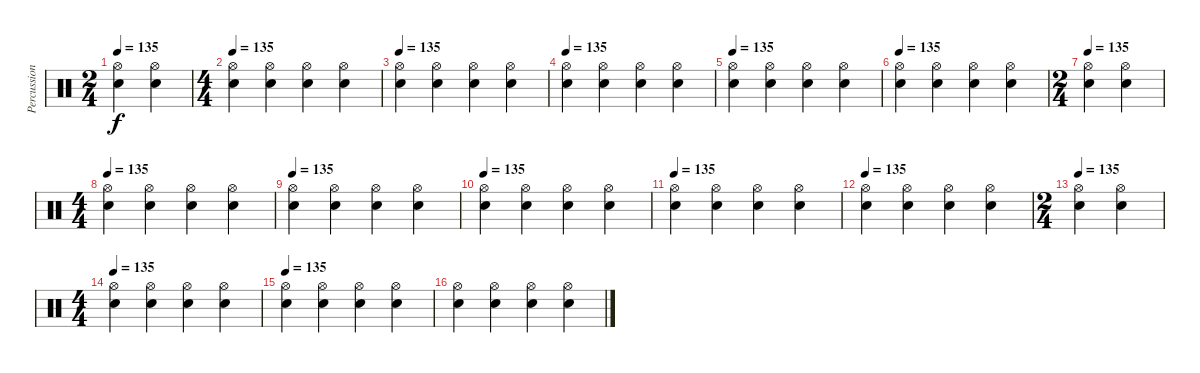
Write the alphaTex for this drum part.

\track ("Percussions" "Percussion") {instrument percussion}
\staff {score}
\articulation defaults
\ts (2 4)
\tempo 135
\clef neutral
\ks c
("Hi-Hat (open)" "Electric Snare (hit)").4{dy f} ("Hi-Hat (open)" "Electric Snare (hit)").4 |
\ts (4 4)
\tempo 135
("Hi-Hat (open)" "Electric Snare (hit)").4 ("Hi-Hat (open)" "Electric Snare (hit)").4 ("Hi-Hat (open)" "Electric Snare (hit)").4 ("Hi-Hat (open)" "Electric Snare (hit)").4 |
\tempo 135
("Hi-Hat (open)" "Electric Snare (hit)").4 ("Hi-Hat (open)" "Electric Snare (hit)").4 ("Hi-Hat (open)" "Electric Snare (hit)").4 ("Hi-Hat (open)" "Electric Snare (hit)").4 |
\tempo 135
("Hi-Hat (open)" "Electric Snare (hit)").4 ("Hi-Hat (open)" "Electric Snare (hit)").4 ("Hi-Hat (open)" "Electric Snare (hit)").4 ("Hi-Hat (open)" "Electric Snare (hit)").4 |
\tempo 135
("Hi-Hat (open)" "Electric Snare (hit)").4 ("Hi-Hat (open)" "Electric Snare (hit)").4 ("Hi-Hat (open)" "Electric Snare (hit)").4 ("Hi-Hat (open)" "Electric Snare (hit)").4 |
\tempo 135
("Hi-Hat (open)" "Electric Snare (hit)").4 ("Hi-Hat (open)" "Electric Snare (hit)").4 ("Hi-Hat (open)" "Electric Snare (hit)").4 ("Hi-Hat (open)" "Electric Snare (hit)").4 |
\ts (2 4)
\tempo 135
("Hi-Hat (open)" "Electric Snare (hit)").4 ("Hi-Hat (open)" "Electric Snare (hit)").4 |
\ts (4 4)
\tempo 135
("Hi-Hat (open)" "Electric Snare (hit)").4 ("Hi-Hat (open)" "Electric Snare (hit)").4 ("Hi-Hat (open)" "Electric Snare (hit)").4 ("Hi-Hat (open)" "Electric Snare (hit)").4 |
\tempo 135
("Hi-Hat (open)" "Electric Snare (hit)").4 ("Hi-Hat (open)" "Electric Snare (hit)").4 ("Hi-Hat (open)" "Electric Snare (hit)").4 ("Hi-Hat (open)" "Electric Snare (hit)").4 |
\tempo 135
("Hi-Hat (open)" "Electric Snare (hit)").4 ("Hi-Hat (open)" "Electric Snare (hit)").4 ("Hi-Hat (open)" "Electric Snare (hit)").4 ("Hi-Hat (open)" "Electric Snare (hit)").4 |
\tempo 135
("Hi-Hat (open)" "Electric Snare (hit)").4 ("Hi-Hat (open)" "Electric Snare (hit)").4 ("Hi-Hat (open)" "Electric Snare (hit)").4 ("Hi-Hat (open)" "Electric Snare (hit)").4 |
\tempo 135
("Hi-Hat (open)" "Electric Snare (hit)").4 ("Hi-Hat (open)" "Electric Snare (hit)").4 ("Hi-Hat (open)" "Electric Snare (hit)").4 ("Hi-Hat (open)" "Electric Snare (hit)").4 |
\ts (2 4)
\tempo 135
("Hi-Hat (open)" "Electric Snare (hit)").4 ("Hi-Hat (open)" "Electric Snare (hit)").4 |
\ts (4 4)
\tempo 135
("Hi-Hat (open)" "Electric Snare (hit)").4 ("Hi-Hat (open)" "Electric Snare (hit)").4 ("Hi-Hat (open)" "Electric Snare (hit)").4 ("Hi-Hat (open)" "Electric Snare (hit)").4 |
\tempo 135
("Hi-Hat (open)" "Electric Snare (hit)").4 ("Hi-Hat (open)" "Electric Snare (hit)").4 ("Hi-Hat (open)" "Electric Snare (hit)").4 ("Hi-Hat (open)" "Electric Snare (hit)").4 |
("Hi-Hat (open)" "Electric Snare (hit)").4 ("Hi-Hat (open)" "Electric Snare (hit)").4 ("Hi-Hat (open)" "Electric Snare (hit)").4 ("Hi-Hat (open)" "Electric Snare (hit)").4
